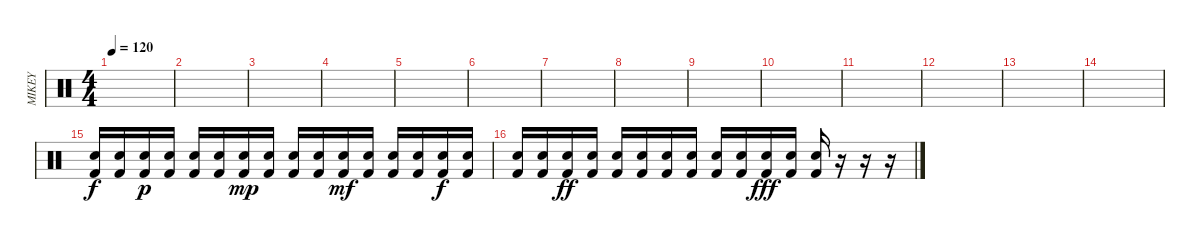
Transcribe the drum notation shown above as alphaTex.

\track ("MIKEY" "MIKEY") {instrument percussion}
\staff {score}
\articulation defaults
\ts (4 4)
\tempo 120
\clef neutral
\ks c
|
|
|
|
|
|
|
|
|
|
|
|
|
|
("Electric Snare (hit)" "Kick (hit) 2").16 ("Electric Snare (hit)" "Kick (hit) 2").16 ("Electric Snare (hit)" "Kick (hit) 2").16{dy p} ("Electric Snare (hit)" "Kick (hit) 2").16 ("Electric Snare (hit)" "Kick (hit) 2").16 ("Electric Snare (hit)" "Kick (hit) 2").16 ("Electric Snare (hit)" "Kick (hit) 2").16{dy mp} ("Electric Snare (hit)" "Kick (hit) 2").16 ("Electric Snare (hit)" "Kick (hit) 2").16 ("Electric Snare (hit)" "Kick (hit) 2").16 ("Electric Snare (hit)" "Kick (hit) 2").16{dy mf} ("Electric Snare (hit)" "Kick (hit) 2").16 ("Electric Snare (hit)" "Kick (hit) 2").16 ("Electric Snare (hit)" "Kick (hit) 2").16 ("Electric Snare (hit)" "Kick (hit) 2").16{dy f} ("Electric Snare (hit)" "Kick (hit) 2").16 |
("Electric Snare (hit)" "Kick (hit) 2").16 ("Electric Snare (hit)" "Kick (hit) 2").16 ("Electric Snare (hit)" "Kick (hit) 2").16{dy ff} ("Electric Snare (hit)" "Kick (hit) 2").16 ("Electric Snare (hit)" "Kick (hit) 2").16 ("Electric Snare (hit)" "Kick (hit) 2").16 ("Electric Snare (hit)" "Kick (hit) 2").16 ("Electric Snare (hit)" "Kick (hit) 2").16 ("Electric Snare (hit)" "Kick (hit) 2").16 ("Electric Snare (hit)" "Kick (hit) 2").16 ("Electric Snare (hit)" "Kick (hit) 2").16{dy fff} ("Electric Snare (hit)" "Kick (hit) 2").16 ("Electric Snare (hit)" "Kick (hit) 2").16 r.16 r.16 r.16
